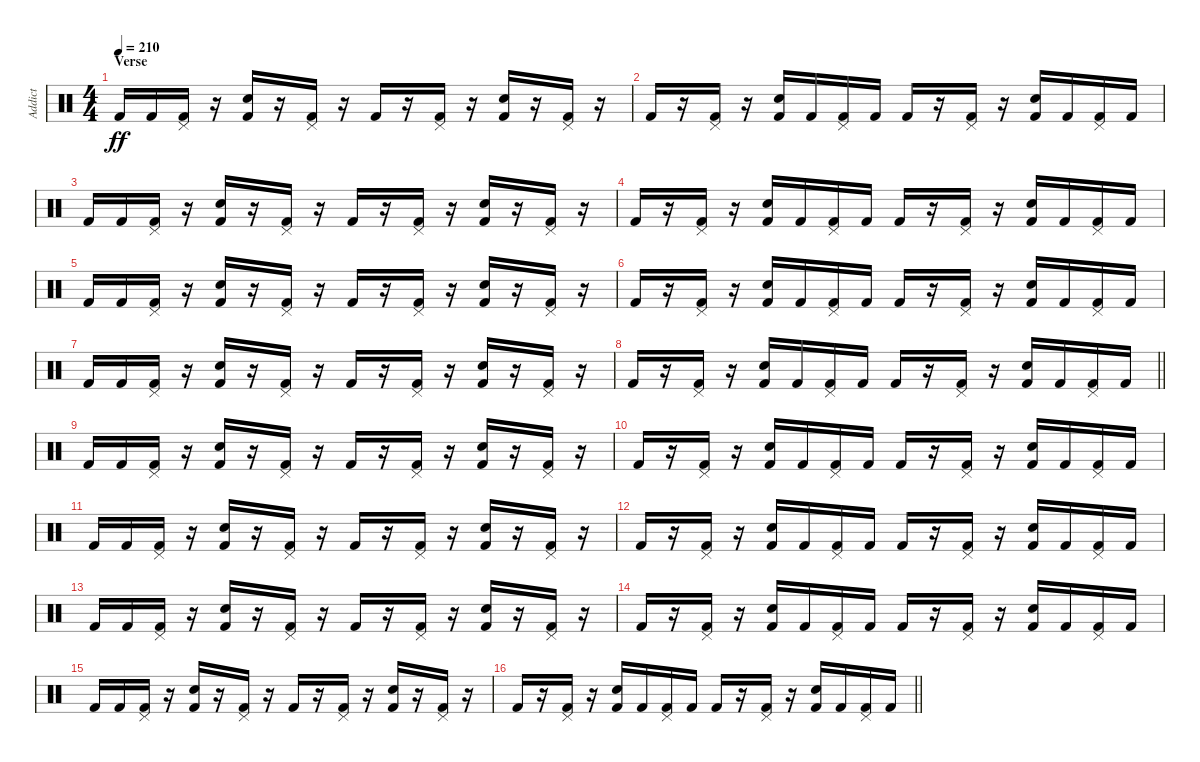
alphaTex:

\track ("Addict" "Addict") {instrument percussion}
\staff {score}
\articulation defaults
\ts (4 4)
\section ("" "Verse")
\tempo 210
\clef neutral
\ks c "Kick (hit) 2".16{dy ff} "Kick (hit) 2".16
("Kick (hit) 2" "Pedal Hi-Hat (hit)").16 r.16 ("Kick (hit) 2" "Snare (hit) 2").16 r.16 ("Kick (hit) 2" "Pedal Hi-Hat (hit)").16 r.16 "Kick (hit) 2".16 r.16 ("Kick (hit) 2" "Pedal Hi-Hat (hit)").16 r.16 ("Kick (hit) 2" "Snare (hit) 2").16 r.16 ("Kick (hit) 2" "Pedal Hi-Hat (hit)").16 r.16 |
"Kick (hit) 2".16 r.16 ("Kick (hit) 2" "Pedal Hi-Hat (hit)").16 r.16 ("Kick (hit) 2" "Snare (hit) 2").16 "Kick (hit) 2".16 ("Kick (hit) 2" "Pedal Hi-Hat (hit)").16 "Kick (hit) 2".16 "Kick (hit) 2".16 r.16 ("Kick (hit) 2" "Pedal Hi-Hat (hit)").16 r.16 ("Kick (hit) 2" "Snare (hit) 2").16 "Kick (hit) 2".16 ("Kick (hit) 2" "Pedal Hi-Hat (hit)").16 "Kick (hit) 2".16 |
"Kick (hit) 2".16 "Kick (hit) 2".16 ("Kick (hit) 2" "Pedal Hi-Hat (hit)").16 r.16 ("Kick (hit) 2" "Snare (hit) 2").16 r.16 ("Kick (hit) 2" "Pedal Hi-Hat (hit)").16 r.16 "Kick (hit) 2".16 r.16 ("Kick (hit) 2" "Pedal Hi-Hat (hit)").16 r.16 ("Kick (hit) 2" "Snare (hit) 2").16 r.16 ("Kick (hit) 2" "Pedal Hi-Hat (hit)").16 r.16 |
"Kick (hit) 2".16 r.16 ("Kick (hit) 2" "Pedal Hi-Hat (hit)").16 r.16 ("Kick (hit) 2" "Snare (hit) 2").16 "Kick (hit) 2".16 ("Kick (hit) 2" "Pedal Hi-Hat (hit)").16 "Kick (hit) 2".16 "Kick (hit) 2".16 r.16 ("Kick (hit) 2" "Pedal Hi-Hat (hit)").16 r.16 ("Kick (hit) 2" "Snare (hit) 2").16 "Kick (hit) 2".16 ("Kick (hit) 2" "Pedal Hi-Hat (hit)").16 "Kick (hit) 2".16 |
"Kick (hit) 2".16 "Kick (hit) 2".16 ("Kick (hit) 2" "Pedal Hi-Hat (hit)").16 r.16 ("Kick (hit) 2" "Snare (hit) 2").16 r.16 ("Kick (hit) 2" "Pedal Hi-Hat (hit)").16 r.16 "Kick (hit) 2".16 r.16 ("Kick (hit) 2" "Pedal Hi-Hat (hit)").16 r.16 ("Kick (hit) 2" "Snare (hit) 2").16 r.16 ("Kick (hit) 2" "Pedal Hi-Hat (hit)").16 r.16 |
"Kick (hit) 2".16 r.16 ("Kick (hit) 2" "Pedal Hi-Hat (hit)").16 r.16 ("Kick (hit) 2" "Snare (hit) 2").16 "Kick (hit) 2".16 ("Kick (hit) 2" "Pedal Hi-Hat (hit)").16 "Kick (hit) 2".16 "Kick (hit) 2".16 r.16 ("Kick (hit) 2" "Pedal Hi-Hat (hit)").16 r.16 ("Kick (hit) 2" "Snare (hit) 2").16 "Kick (hit) 2".16 ("Kick (hit) 2" "Pedal Hi-Hat (hit)").16 "Kick (hit) 2".16 |
"Kick (hit) 2".16 "Kick (hit) 2".16 ("Kick (hit) 2" "Pedal Hi-Hat (hit)").16 r.16 ("Kick (hit) 2" "Snare (hit) 2").16 r.16 ("Kick (hit) 2" "Pedal Hi-Hat (hit)").16 r.16 "Kick (hit) 2".16 r.16 ("Kick (hit) 2" "Pedal Hi-Hat (hit)").16 r.16 ("Kick (hit) 2" "Snare (hit) 2").16 r.16 ("Kick (hit) 2" "Pedal Hi-Hat (hit)").16 r.16 |
\barLineRight lightlight "Kick (hit) 2".16
r.16 ("Kick (hit) 2" "Pedal Hi-Hat (hit)").16 r.16 ("Kick (hit) 2" "Snare (hit) 2").16 "Kick (hit) 2".16 ("Kick (hit) 2" "Pedal Hi-Hat (hit)").16 "Kick (hit) 2".16 "Kick (hit) 2".16 r.16 ("Kick (hit) 2" "Pedal Hi-Hat (hit)").16 r.16 ("Kick (hit) 2" "Snare (hit) 2").16 "Kick (hit) 2".16 ("Kick (hit) 2" "Pedal Hi-Hat (hit)").16 "Kick (hit) 2".16 |
"Kick (hit) 2".16 "Kick (hit) 2".16 ("Kick (hit) 2" "Pedal Hi-Hat (hit)").16 r.16 ("Kick (hit) 2" "Snare (hit) 2").16 r.16 ("Kick (hit) 2" "Pedal Hi-Hat (hit)").16 r.16 "Kick (hit) 2".16 r.16 ("Kick (hit) 2" "Pedal Hi-Hat (hit)").16 r.16 ("Kick (hit) 2" "Snare (hit) 2").16 r.16 ("Kick (hit) 2" "Pedal Hi-Hat (hit)").16 r.16 |
"Kick (hit) 2".16 r.16 ("Kick (hit) 2" "Pedal Hi-Hat (hit)").16 r.16 ("Kick (hit) 2" "Snare (hit) 2").16 "Kick (hit) 2".16 ("Kick (hit) 2" "Pedal Hi-Hat (hit)").16 "Kick (hit) 2".16 "Kick (hit) 2".16 r.16 ("Kick (hit) 2" "Pedal Hi-Hat (hit)").16 r.16 ("Kick (hit) 2" "Snare (hit) 2").16 "Kick (hit) 2".16 ("Kick (hit) 2" "Pedal Hi-Hat (hit)").16 "Kick (hit) 2".16 |
"Kick (hit) 2".16 "Kick (hit) 2".16 ("Kick (hit) 2" "Pedal Hi-Hat (hit)").16 r.16 ("Kick (hit) 2" "Snare (hit) 2").16 r.16 ("Kick (hit) 2" "Pedal Hi-Hat (hit)").16 r.16 "Kick (hit) 2".16 r.16 ("Kick (hit) 2" "Pedal Hi-Hat (hit)").16 r.16 ("Kick (hit) 2" "Snare (hit) 2").16 r.16 ("Kick (hit) 2" "Pedal Hi-Hat (hit)").16 r.16 |
"Kick (hit) 2".16 r.16 ("Kick (hit) 2" "Pedal Hi-Hat (hit)").16 r.16 ("Kick (hit) 2" "Snare (hit) 2").16 "Kick (hit) 2".16 ("Kick (hit) 2" "Pedal Hi-Hat (hit)").16 "Kick (hit) 2".16 "Kick (hit) 2".16 r.16 ("Kick (hit) 2" "Pedal Hi-Hat (hit)").16 r.16 ("Kick (hit) 2" "Snare (hit) 2").16 "Kick (hit) 2".16 ("Kick (hit) 2" "Pedal Hi-Hat (hit)").16 "Kick (hit) 2".16 |
"Kick (hit) 2".16 "Kick (hit) 2".16 ("Kick (hit) 2" "Pedal Hi-Hat (hit)").16 r.16 ("Kick (hit) 2" "Snare (hit) 2").16 r.16 ("Kick (hit) 2" "Pedal Hi-Hat (hit)").16 r.16 "Kick (hit) 2".16 r.16 ("Kick (hit) 2" "Pedal Hi-Hat (hit)").16 r.16 ("Kick (hit) 2" "Snare (hit) 2").16 r.16 ("Kick (hit) 2" "Pedal Hi-Hat (hit)").16 r.16 |
"Kick (hit) 2".16 r.16 ("Kick (hit) 2" "Pedal Hi-Hat (hit)").16 r.16 ("Kick (hit) 2" "Snare (hit) 2").16 "Kick (hit) 2".16 ("Kick (hit) 2" "Pedal Hi-Hat (hit)").16 "Kick (hit) 2".16 "Kick (hit) 2".16 r.16 ("Kick (hit) 2" "Pedal Hi-Hat (hit)").16 r.16 ("Kick (hit) 2" "Snare (hit) 2").16 "Kick (hit) 2".16 ("Kick (hit) 2" "Pedal Hi-Hat (hit)").16 "Kick (hit) 2".16 |
"Kick (hit) 2".16 "Kick (hit) 2".16 ("Kick (hit) 2" "Pedal Hi-Hat (hit)").16 r.16 ("Kick (hit) 2" "Snare (hit) 2").16 r.16 ("Kick (hit) 2" "Pedal Hi-Hat (hit)").16 r.16 "Kick (hit) 2".16 r.16 ("Kick (hit) 2" "Pedal Hi-Hat (hit)").16 r.16 ("Kick (hit) 2" "Snare (hit) 2").16 r.16 ("Kick (hit) 2" "Pedal Hi-Hat (hit)").16 r.16 |
\barLineRight lightlight "Kick (hit) 2".16
r.16 ("Kick (hit) 2" "Pedal Hi-Hat (hit)").16 r.16 ("Kick (hit) 2" "Snare (hit) 2").16 "Kick (hit) 2".16 ("Kick (hit) 2" "Pedal Hi-Hat (hit)").16 "Kick (hit) 2".16 "Kick (hit) 2".16 r.16 ("Kick (hit) 2" "Pedal Hi-Hat (hit)").16 r.16 ("Kick (hit) 2" "Snare (hit) 2").16 "Kick (hit) 2".16 ("Kick (hit) 2" "Pedal Hi-Hat (hit)").16 "Kick (hit) 2".16
